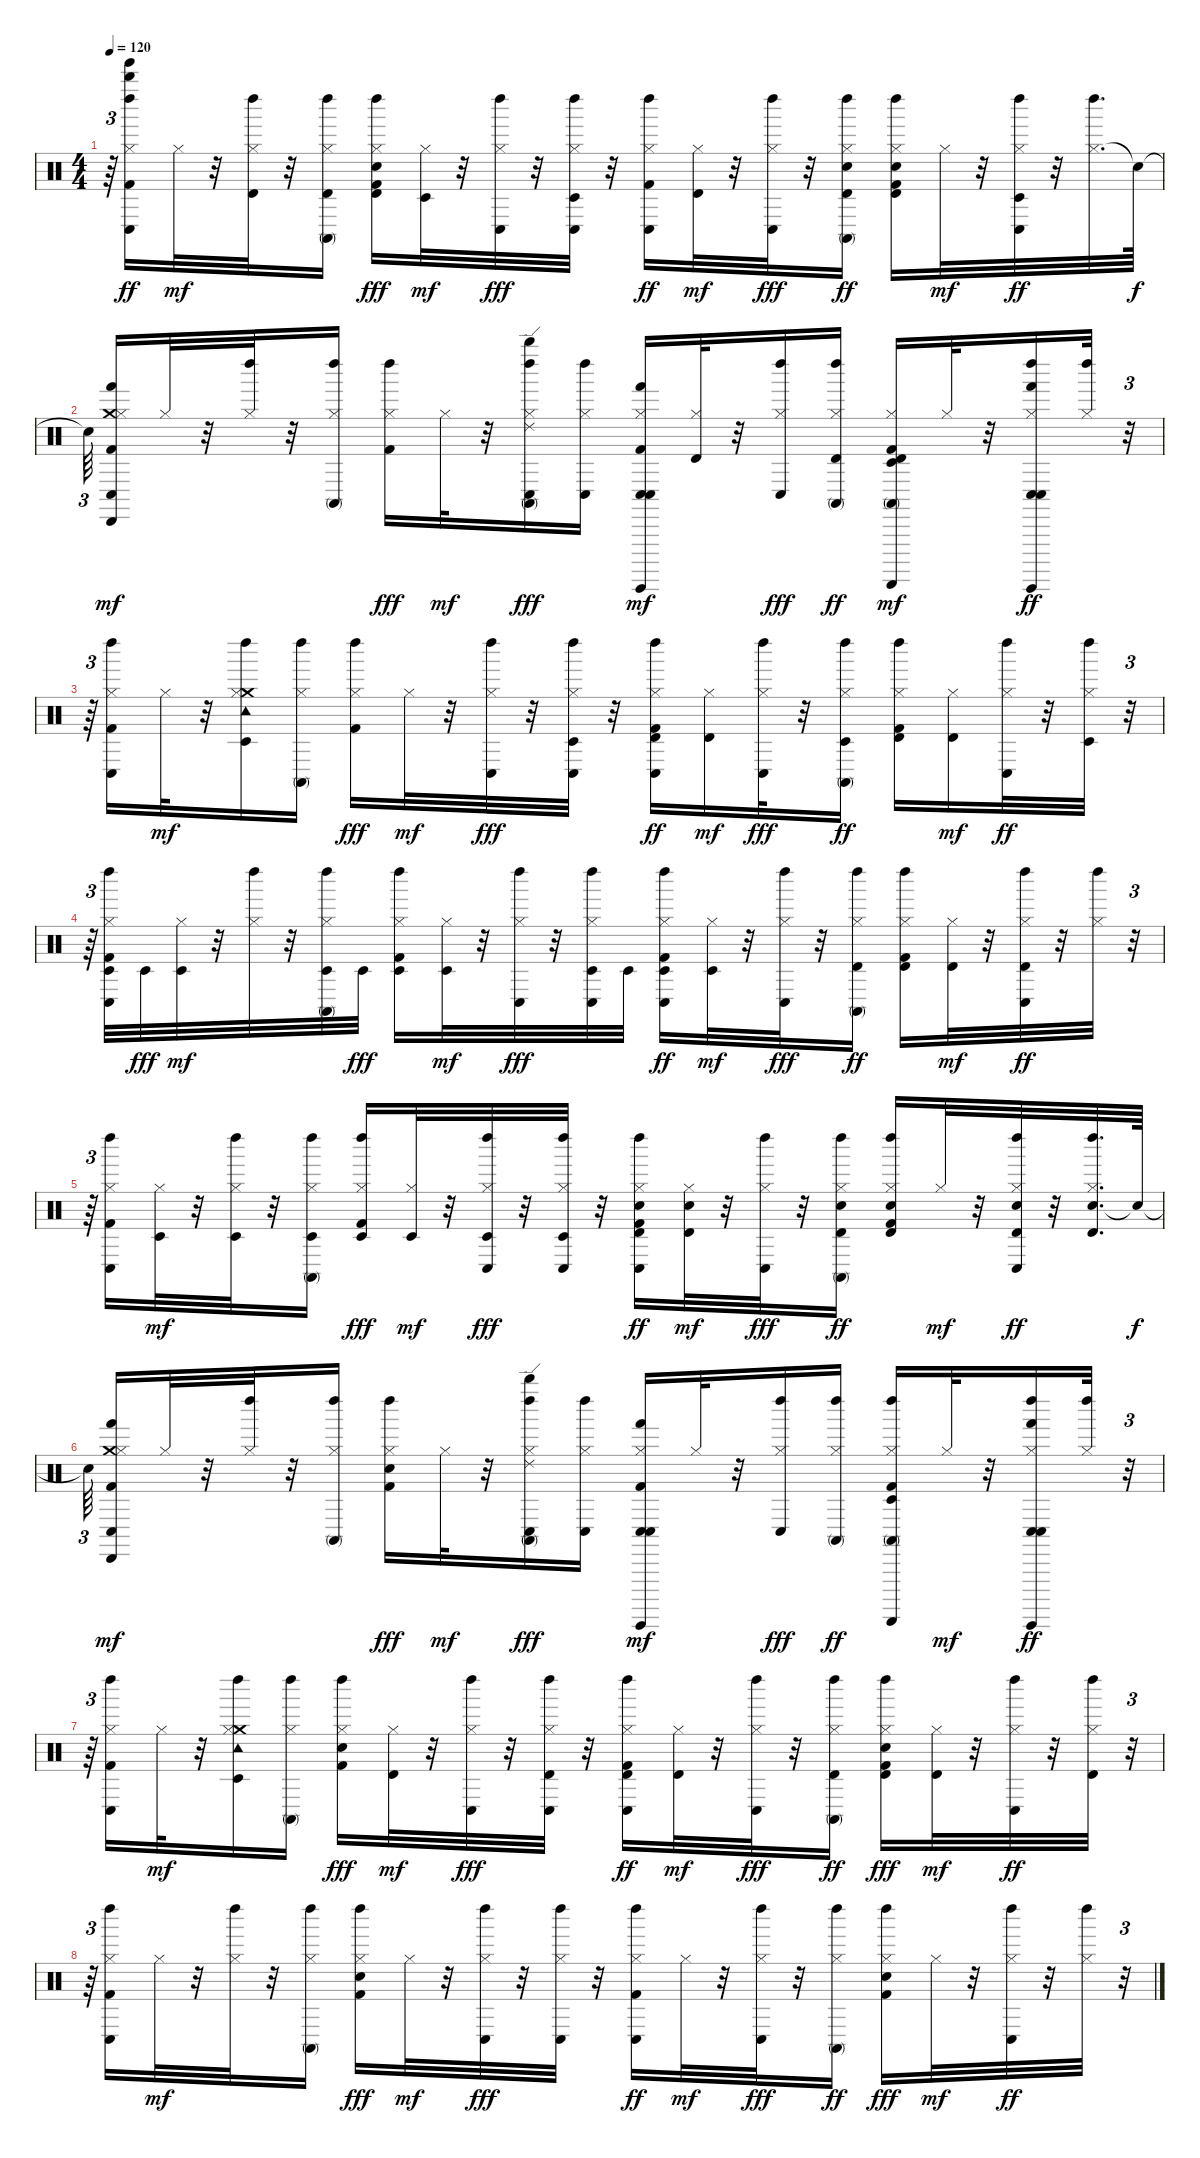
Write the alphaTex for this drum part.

\track "" {instrument percussion}
\staff {score}
\articulation defaults
\ts (4 4)
\tempo 120
\clef neutral
\ks c
r.64{tu (3 2) dy ff} ("Whistle high (hit)" "Tinkle Bell (hit)" "Kick (hit) 2" "Conga low (hit)" "Hi-Hat (closed)" "Left Maraca (hit)").16 "Hi-Hat (closed)".32{dy mf} r.32 ("Timbale high (hit)" "Hi-Hat (closed)" "Left Maraca (hit)").32 r.32 ("Timbale high (hit)" "Conga high (mute)" "Hi-Hat (closed)" "Left Maraca (hit)").16 ("Kick (hit) 2" "Electric Snare (hit)" "Timbale high (hit)" "Hi-Hat (closed)" "Left Maraca (hit)").16{dy fff} ("Timbale low (hit)" "Hi-Hat (closed)").32{dy mf} r.32 ("Conga low (hit)" "Hi-Hat (closed)" "Left Maraca (hit)").32{dy fff} r.32 ("Timbale low (hit)" "Conga low (hit)" "Hi-Hat (closed)" "Left Maraca (hit)").32 r.32 ("Kick (hit) 2" "Conga low (hit)" "Hi-Hat (closed)" "Left Maraca (hit)").16{dy ff} ("Timbale high (hit)" "Hi-Hat (closed)").32{dy mf} r.32 ("Conga low (hit)" "Hi-Hat (closed)" "Left Maraca (hit)").32{dy fff} r.32 ("Electric Snare (hit)" "Timbale high (hit)" "Conga high (mute)" "Hi-Hat (closed)" "Left Maraca (hit)").16{dy ff} ("Kick (hit) 2" "Electric Snare (hit)" "Timbale high (hit)" "Hi-Hat (closed)" "Left Maraca (hit)").16 "Hi-Hat (closed)".32{dy mf} r.32 ("Timbale low (hit)" "Conga low (hit)" "Hi-Hat (closed)" "Left Maraca (hit)").32{dy ff} r.32 ("Hi-Hat (closed)" "Left Maraca (hit)").32{d} "Snare (hit)"{t}.64{dy f} |
"Snare (hit)"{t}.64{tu (3 2) beam splitsecondary} ("Hand (hit)" "Crash medium (hit)" "Cabasa (hit)" "Kick (hit) 2" "Conga low (hit)" "Hi-Hat (closed)").16{dy mf} "Hi-Hat (closed)".32 r.32 ("Hi-Hat (closed)" "Left Maraca (hit)").32 r.32 ("Conga high (mute)" "Hi-Hat (closed)" "Left Maraca (hit)").16 ("Kick (hit) 2" "Hi-Hat (closed)" "Left Maraca (hit)").16{dy fff} "Hi-Hat (closed)".32{dy mf} r.32 ("Conga high (mute)" "Ride (edge) 2" "Whistle high (hit)" "Conga low (hit)" "Hi-Hat (closed)" "Left Maraca (hit)").16{dy fff} ("Conga low (hit)" "Hi-Hat (closed)" "Left Maraca (hit)").16 ("Conga low (hit)" "Hand (hit)" "Guiro (hit)" "Kick (hit) 2" "Conga low (hit)" "Hi-Hat (closed)").16{dy mf} ("Timbale high (hit)" "Hi-Hat (closed)").32 r.32 ("Conga low (hit)" "Hi-Hat (closed)" "Left Maraca (hit)").16{dy fff} ("Timbale high (hit)" "Conga high (mute)" "Hi-Hat (closed)" "Left Maraca (hit)").16{dy ff} ("Timbale low (hit)" "Conga high (mute)" "Guiro (scrap-return)" "Kick (hit) 2" "Timbale high (hit)" "Hi-Hat (closed)").16{dy mf} "Hi-Hat (closed)".32 r.32 ("Conga low (hit)" "Hand (hit)" "Guiro (hit)" "Conga low (hit)" "Hi-Hat (closed)" "Left Maraca (hit)").16{dy ff} ("Hi-Hat (closed)" "Left Maraca (hit)").32 r.32{tu (3 2)} |
r.64{tu (3 2)} ("Kick (hit) 2" "Conga low (hit)" "Hi-Hat (closed)" "Left Maraca (hit)").16 "Hi-Hat (closed)".32{dy mf} r.32 ("Crash medium (hit)" "Tambourine (hit)" "Timbale low (hit)" "Hi-Hat (closed)" "Left Maraca (hit)").16 ("Conga high (mute)" "Hi-Hat (closed)" "Left Maraca (hit)").16 ("Kick (hit) 2" "Hi-Hat (closed)" "Left Maraca (hit)").16{dy fff} "Hi-Hat (closed)".32{dy mf} r.32 ("Conga low (hit)" "Hi-Hat (closed)" "Left Maraca (hit)").32{dy fff} r.32 ("Timbale low (hit)" "Conga low (hit)" "Hi-Hat (closed)" "Left Maraca (hit)").32 r.32 ("Kick (hit) 2" "Timbale high (hit)" "Conga low (hit)" "Hi-Hat (closed)" "Left Maraca (hit)").16{dy ff} ("Timbale high (hit)" "Hi-Hat (closed)").16{dy mf} ("Conga low (hit)" "Hi-Hat (closed)" "Left Maraca (hit)").32{dy fff} r.32 ("Timbale low (hit)" "Conga high (mute)" "Hi-Hat (closed)" "Left Maraca (hit)").16{dy ff} ("Kick (hit) 2" "Timbale high (hit)" "Hi-Hat (closed)" "Left Maraca (hit)").16 ("Timbale high (hit)" "Hi-Hat (closed)").16{dy mf} ("Conga low (hit)" "Hi-Hat (closed)" "Left Maraca (hit)").32{dy ff} r.32 ("Timbale low (hit)" "Hi-Hat (closed)" "Left Maraca (hit)").32 r.32{tu (3 2)} |
r.64{tu (3 2)} ("Kick (hit) 2" "Timbale low (hit)" "Conga low (hit)" "Hi-Hat (closed)" "Left Maraca (hit)").32 "Timbale low (hit)".32{dy fff} ("Timbale low (hit)" "Hi-Hat (closed)").32{dy mf} r.32 ("Hi-Hat (closed)" "Left Maraca (hit)").32 r.32 ("Timbale low (hit)" "Conga high (mute)" "Hi-Hat (closed)" "Left Maraca (hit)").32 "Timbale low (hit)".32{dy fff} ("Kick (hit) 2" "Timbale low (hit)" "Hi-Hat (closed)" "Left Maraca (hit)").16 ("Timbale low (hit)" "Hi-Hat (closed)").32{dy mf} r.32 ("Conga low (hit)" "Hi-Hat (closed)" "Left Maraca (hit)").32{dy fff} r.32 ("Timbale low (hit)" "Conga low (hit)" "Hi-Hat (closed)" "Left Maraca (hit)").32 "Timbale low (hit)".32 ("Kick (hit) 2" "Timbale low (hit)" "Conga low (hit)" "Hi-Hat (closed)" "Left Maraca (hit)").16{dy ff} ("Timbale low (hit)" "Hi-Hat (closed)").32{dy mf} r.32 ("Conga low (hit)" "Hi-Hat (closed)" "Left Maraca (hit)").32{dy fff} r.32 ("Timbale high (hit)" "Conga high (mute)" "Hi-Hat (closed)" "Left Maraca (hit)").16{dy ff} ("Kick (hit) 2" "Timbale high (hit)" "Hi-Hat (closed)" "Left Maraca (hit)").16 ("Timbale high (hit)" "Hi-Hat (closed)").32{dy mf} r.32 ("Timbale high (hit)" "Conga low (hit)" "Hi-Hat (closed)" "Left Maraca (hit)").32{dy ff} r.32 ("Hi-Hat (closed)" "Left Maraca (hit)").32 r.32{tu (3 2)} |
r.64{tu (3 2)} ("Kick (hit) 2" "Conga low (hit)" "Hi-Hat (closed)" "Left Maraca (hit)").16 ("Timbale low (hit)" "Hi-Hat (closed)").32{dy mf} r.32 ("Timbale low (hit)" "Hi-Hat (closed)" "Left Maraca (hit)").32 r.32 ("Timbale low (hit)" "Conga high (mute)" "Hi-Hat (closed)" "Left Maraca (hit)").16 ("Kick (hit) 2" "Timbale low (hit)" "Hi-Hat (closed)" "Left Maraca (hit)").16{dy fff} ("Timbale low (hit)" "Hi-Hat (closed)").32{dy mf} r.32 ("Timbale low (hit)" "Conga low (hit)" "Hi-Hat (closed)" "Left Maraca (hit)").32{dy fff} r.32 ("Timbale low (hit)" "Conga low (hit)" "Hi-Hat (closed)" "Left Maraca (hit)").32 r.32 ("Kick (hit) 2" "Electric Snare (hit)" "Timbale high (hit)" "Conga low (hit)" "Hi-Hat (closed)" "Left Maraca (hit)").16{dy ff} ("Electric Snare (hit)" "Timbale high (hit)" "Hi-Hat (closed)").32{dy mf} r.32 ("Conga low (hit)" "Hi-Hat (closed)" "Left Maraca (hit)").32{dy fff} r.32 ("Electric Snare (hit)" "Timbale high (hit)" "Conga high (mute)" "Hi-Hat (closed)" "Left Maraca (hit)").16{dy ff} ("Kick (hit) 2" "Electric Snare (hit)" "Timbale high (hit)" "Hi-Hat (closed)" "Left Maraca (hit)").16 "Hi-Hat (closed)".32{dy mf} r.32 ("Electric Snare (hit)" "Timbale high (hit)" "Conga low (hit)" "Hi-Hat (closed)" "Left Maraca (hit)").32{dy ff} r.32 ("Electric Snare (hit)" "Timbale high (hit)" "Hi-Hat (closed)" "Left Maraca (hit)").32{d} "Snare (hit)"{t}.64{dy f} |
"Snare (hit)"{t}.64{tu (3 2) beam splitsecondary} ("Hand (hit)" "Crash medium (hit)" "Cabasa (hit)" "Kick (hit) 2" "Conga low (hit)" "Hi-Hat (closed)").16{dy mf} "Hi-Hat (closed)".32 r.32 ("Hi-Hat (closed)" "Left Maraca (hit)").32 r.32 ("Conga high (mute)" "Hi-Hat (closed)" "Left Maraca (hit)").16 ("Kick (hit) 2" "Hi-Hat (closed)" "Left Maraca (hit)" "Hand Clap (hit)").16{dy fff} "Hi-Hat (closed)".32{dy mf} r.32 ("Conga high (mute)" "Ride (edge) 2" "Whistle high (hit)" "Conga low (hit)" "Hi-Hat (closed)" "Left Maraca (hit)").16{dy fff} ("Conga low (hit)" "Hi-Hat (closed)" "Left Maraca (hit)").16 ("Conga low (hit)" "Hand (hit)" "Guiro (hit)" "Kick (hit) 2" "Conga low (hit)" "Hi-Hat (closed)").16{dy mf} "Hi-Hat (closed)".32 r.32 ("Conga low (hit)" "Hi-Hat (closed)" "Left Maraca (hit)").16{dy fff} ("Conga high (mute)" "Hi-Hat (closed)" "Left Maraca (hit)").16{dy ff} ("Timbale low (hit)" "Conga high (mute)" "Guiro (scrap-return)" "Kick (hit) 2" "Hi-Hat (closed)" "Left Maraca (hit)").16 "Hi-Hat (closed)".32{dy mf} r.32 ("Conga low (hit)" "Hand (hit)" "Guiro (hit)" "Conga low (hit)" "Hi-Hat (closed)" "Left Maraca (hit)").16{dy ff} ("Hi-Hat (closed)" "Left Maraca (hit)").32 r.32{tu (3 2)} |
r.64{tu (3 2)} ("Kick (hit) 2" "Conga low (hit)" "Hi-Hat (closed)" "Left Maraca (hit)").16 "Hi-Hat (closed)".32{dy mf} r.32 ("Crash medium (hit)" "Tambourine (hit)" "Timbale low (hit)" "Hi-Hat (closed)" "Left Maraca (hit)").16 ("Conga high (mute)" "Hi-Hat (closed)" "Left Maraca (hit)").16 ("Kick (hit) 2" "Hi-Hat (closed)" "Left Maraca (hit)" "Hand Clap (hit)").16{dy fff} ("Timbale high (hit)" "Hi-Hat (closed)").32{dy mf} r.32 ("Conga low (hit)" "Hi-Hat (closed)" "Left Maraca (hit)").32{dy fff} r.32 ("Timbale high (hit)" "Conga low (hit)" "Hi-Hat (closed)" "Left Maraca (hit)").32 r.32 ("Kick (hit) 2" "Timbale high (hit)" "Conga low (hit)" "Hi-Hat (closed)" "Left Maraca (hit)").16{dy ff} ("Timbale high (hit)" "Hi-Hat (closed)").32{dy mf} r.32 ("Conga low (hit)" "Hi-Hat (closed)" "Left Maraca (hit)").32{dy fff} r.32 ("Timbale high (hit)" "Conga high (mute)" "Hi-Hat (closed)" "Left Maraca (hit)").16{dy ff} ("Kick (hit) 2" "Timbale high (hit)" "Hi-Hat (closed)" "Left Maraca (hit)" "Hand Clap (hit)").16{dy fff} ("Timbale high (hit)" "Hi-Hat (closed)").32{dy mf} r.32 ("Conga low (hit)" "Hi-Hat (closed)" "Left Maraca (hit)").32{dy ff} r.32 ("Timbale high (hit)" "Hi-Hat (closed)" "Left Maraca (hit)").32 r.32{tu (3 2)} |
r.64{tu (3 2)} ("Kick (hit) 2" "Conga low (hit)" "Hi-Hat (closed)" "Left Maraca (hit)").16 "Hi-Hat (closed)".32{dy mf} r.32 ("Hi-Hat (closed)" "Left Maraca (hit)").32 r.32 ("Conga high (mute)" "Hi-Hat (closed)" "Left Maraca (hit)").16 ("Kick (hit) 2" "Hi-Hat (closed)" "Left Maraca (hit)" "Hand Clap (hit)").16{dy fff} "Hi-Hat (closed)".32{dy mf} r.32 ("Conga low (hit)" "Hi-Hat (closed)" "Left Maraca (hit)").32{dy fff} r.32 ("Conga low (hit)" "Hi-Hat (closed)" "Left Maraca (hit)").32 r.32 ("Kick (hit) 2" "Conga low (hit)" "Hi-Hat (closed)" "Left Maraca (hit)").16{dy ff} "Hi-Hat (closed)".32{dy mf} r.32 ("Conga low (hit)" "Hi-Hat (closed)" "Left Maraca (hit)").32{dy fff} r.32 ("Conga high (mute)" "Hi-Hat (closed)" "Left Maraca (hit)").16{dy ff} ("Kick (hit) 2" "Hi-Hat (closed)" "Left Maraca (hit)" "Hand Clap (hit)").16{dy fff} "Hi-Hat (closed)".32{dy mf} r.32 ("Conga low (hit)" "Hi-Hat (closed)" "Left Maraca (hit)").32{dy ff} r.32 ("Hi-Hat (closed)" "Left Maraca (hit)").32 r.32{tu (3 2)}
